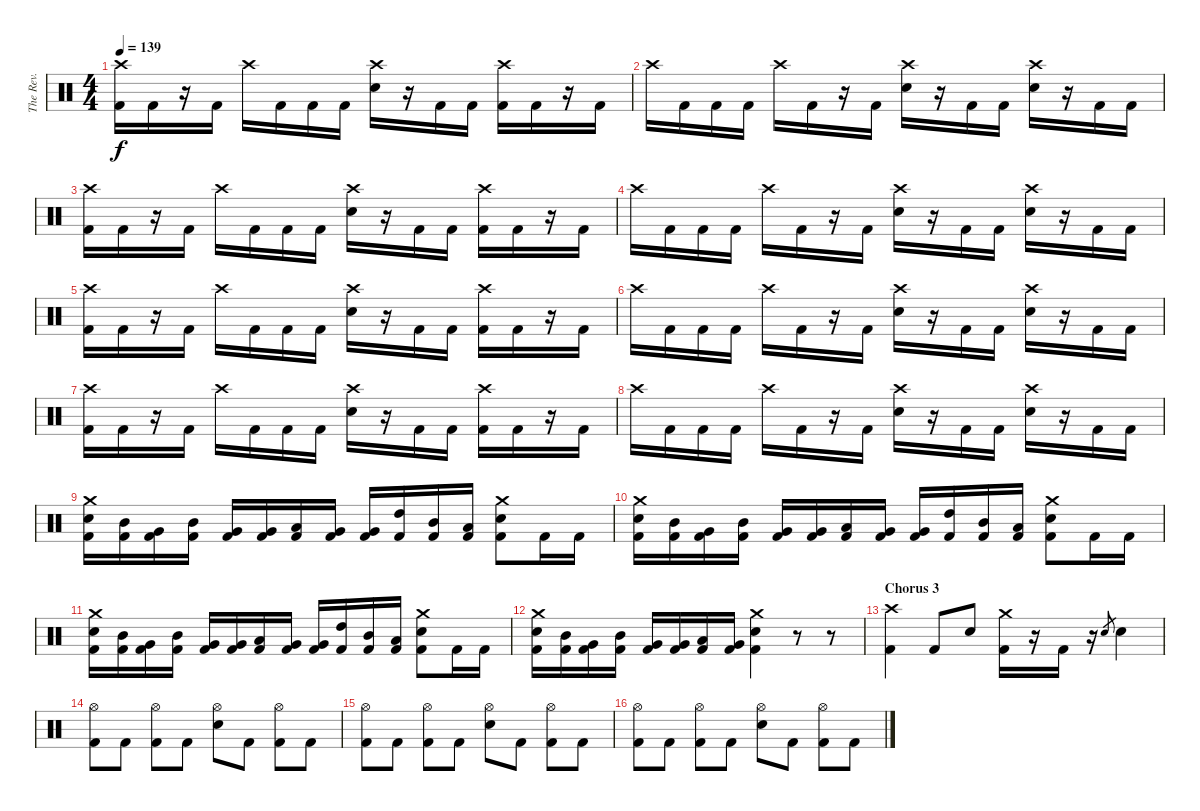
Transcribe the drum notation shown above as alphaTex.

\track ("The Rev." "The Rev.") {instrument percussion}
\staff {score}
\articulation defaults
\ts (4 4)
\section ("" " ")
\tempo 139
\clef neutral
\ks c
("Crash high (hit)" "Kick (hit) 2").16{dy f} "Kick (hit) 2".16 r.16 "Kick (hit) 2".16 "Crash high (hit)".16 "Kick (hit) 2".16 "Kick (hit) 2".16 "Kick (hit) 2".16 ("Crash high (hit)" "Electric Snare (hit)").16 r.16 "Kick (hit) 2".16 "Kick (hit) 2".16 ("Crash high (hit)" "Kick (hit) 2").16 "Kick (hit) 2".16 r.16 "Kick (hit) 2".16 |
"Crash high (hit)".16 "Kick (hit) 2".16 "Kick (hit) 2".16 "Kick (hit) 2".16 "Crash high (hit)".16 "Kick (hit) 2".16 r.16 "Kick (hit) 2".16 ("Crash high (hit)" "Electric Snare (hit)").16 r.16 "Kick (hit) 2".16 "Kick (hit) 2".16 ("Crash high (hit)" "Electric Snare (hit)").16 r.16 "Kick (hit) 2".16 "Kick (hit) 2".16 |
("Crash high (hit)" "Kick (hit) 2").16 "Kick (hit) 2".16 r.16 "Kick (hit) 2".16 "Crash high (hit)".16 "Kick (hit) 2".16 "Kick (hit) 2".16 "Kick (hit) 2".16 ("Crash high (hit)" "Electric Snare (hit)").16 r.16 "Kick (hit) 2".16 "Kick (hit) 2".16 ("Crash high (hit)" "Kick (hit) 2").16 "Kick (hit) 2".16 r.16 "Kick (hit) 2".16 |
"Crash high (hit)".16 "Kick (hit) 2".16 "Kick (hit) 2".16 "Kick (hit) 2".16 "Crash high (hit)".16 "Kick (hit) 2".16 r.16 "Kick (hit) 2".16 ("Crash high (hit)" "Electric Snare (hit)").16 r.16 "Kick (hit) 2".16 "Kick (hit) 2".16 ("Crash high (hit)" "Electric Snare (hit)").16 r.16 "Kick (hit) 2".16 "Kick (hit) 2".16 |
("Crash high (hit)" "Kick (hit) 2").16 "Kick (hit) 2".16 r.16 "Kick (hit) 2".16 "Crash high (hit)".16 "Kick (hit) 2".16 "Kick (hit) 2".16 "Kick (hit) 2".16 ("Crash high (hit)" "Electric Snare (hit)").16 r.16 "Kick (hit) 2".16 "Kick (hit) 2".16 ("Crash high (hit)" "Kick (hit) 2").16 "Kick (hit) 2".16 r.16 "Kick (hit) 2".16 |
"Crash high (hit)".16 "Kick (hit) 2".16 "Kick (hit) 2".16 "Kick (hit) 2".16 "Crash high (hit)".16 "Kick (hit) 2".16 r.16 "Kick (hit) 2".16 ("Crash high (hit)" "Electric Snare (hit)").16 r.16 "Kick (hit) 2".16 "Kick (hit) 2".16 ("Crash high (hit)" "Electric Snare (hit)").16 r.16 "Kick (hit) 2".16 "Kick (hit) 2".16 |
("Crash high (hit)" "Kick (hit) 2").16 "Kick (hit) 2".16 r.16 "Kick (hit) 2".16 "Crash high (hit)".16 "Kick (hit) 2".16 "Kick (hit) 2".16 "Kick (hit) 2".16 ("Crash high (hit)" "Electric Snare (hit)").16 r.16 "Kick (hit) 2".16 "Kick (hit) 2".16 ("Crash high (hit)" "Kick (hit) 2").16 "Kick (hit) 2".16 r.16 "Kick (hit) 2".16 |
"Crash high (hit)".16 "Kick (hit) 2".16 "Kick (hit) 2".16 "Kick (hit) 2".16 "Crash high (hit)".16 "Kick (hit) 2".16 r.16 "Kick (hit) 2".16 ("Crash high (hit)" "Electric Snare (hit)").16 r.16 "Kick (hit) 2".16 "Kick (hit) 2".16 ("Crash high (hit)" "Electric Snare (hit)").16 r.16 "Kick (hit) 2".16 "Kick (hit) 2".16 |
("Crash medium (hit)" "Electric Snare (hit)" "Kick (hit) 2").16 ("Mid Tom (hit)" "Kick (hit) 2").16 ("Very Low Tom (hit)" "Kick (hit) 2").16 ("Mid Tom (hit)" "Kick (hit) 2").16 ("Very Low Tom (hit)" "Kick (hit) 2").16 ("Very Low Tom (hit)" "Kick (hit) 2").16 ("Low Tom (hit)" "Kick (hit) 2").16 ("Very Low Tom (hit)" "Kick (hit) 2").16 ("Very Low Tom (hit)" "Kick (hit) 2").16 ("High Tom (hit)" "Kick (hit) 2").16 ("Mid Tom (hit)" "Kick (hit) 2").16 ("Low Tom (hit)" "Kick (hit) 2").16 ("Crash medium (hit)" "Electric Snare (hit)" "Kick (hit) 2").8 "Kick (hit) 2".16 "Kick (hit) 2".16 |
("Crash medium (hit)" "Electric Snare (hit)" "Kick (hit) 2").16 ("Mid Tom (hit)" "Kick (hit) 2").16 ("Very Low Tom (hit)" "Kick (hit) 2").16 ("Mid Tom (hit)" "Kick (hit) 2").16 ("Very Low Tom (hit)" "Kick (hit) 2").16 ("Very Low Tom (hit)" "Kick (hit) 2").16 ("Low Tom (hit)" "Kick (hit) 2").16 ("Very Low Tom (hit)" "Kick (hit) 2").16 ("Very Low Tom (hit)" "Kick (hit) 2").16 ("High Tom (hit)" "Kick (hit) 2").16 ("Mid Tom (hit)" "Kick (hit) 2").16 ("Low Tom (hit)" "Kick (hit) 2").16 ("Crash medium (hit)" "Electric Snare (hit)" "Kick (hit) 2").8 "Kick (hit) 2".16 "Kick (hit) 2".16 |
("Crash medium (hit)" "Electric Snare (hit)" "Kick (hit) 2").16 ("Mid Tom (hit)" "Kick (hit) 2").16 ("Very Low Tom (hit)" "Kick (hit) 2").16 ("Mid Tom (hit)" "Kick (hit) 2").16 ("Very Low Tom (hit)" "Kick (hit) 2").16 ("Very Low Tom (hit)" "Kick (hit) 2").16 ("Low Tom (hit)" "Kick (hit) 2").16 ("Very Low Tom (hit)" "Kick (hit) 2").16 ("Very Low Tom (hit)" "Kick (hit) 2").16 ("High Tom (hit)" "Kick (hit) 2").16 ("Mid Tom (hit)" "Kick (hit) 2").16 ("Low Tom (hit)" "Kick (hit) 2").16 ("Crash medium (hit)" "Electric Snare (hit)" "Kick (hit) 2").8 "Kick (hit) 2".16 "Kick (hit) 2".16 |
("Crash medium (hit)" "Electric Snare (hit)" "Kick (hit) 2").16 ("Mid Tom (hit)" "Kick (hit) 2").16 ("Very Low Tom (hit)" "Kick (hit) 2").16 ("Mid Tom (hit)" "Kick (hit) 2").16 ("Very Low Tom (hit)" "Kick (hit) 2").16 ("Very Low Tom (hit)" "Kick (hit) 2").16 ("Low Tom (hit)" "Kick (hit) 2").16 ("Very Low Tom (hit)" "Kick (hit) 2").16 ("Crash medium (hit)" "Electric Snare (hit)" "Kick (hit) 2").4 r.8 r.8 |
\section ("" "Chorus 3")
("Crash high (hit)" "Kick (hit) 2").4 "Kick (hit) 2".8 "Electric Snare (hit)".8 ("Crash medium (hit)" "Kick (hit) 2").16 r.16 "Kick (hit) 2".16 r.16 "Electric Snare (hit)".8{gr} "Electric Snare (hit)".4 |
("Hi-Hat (open)" "Kick (hit) 2").8 "Kick (hit) 2".8 ("Hi-Hat (open)" "Kick (hit) 2").8 "Kick (hit) 2".8 ("Hi-Hat (open)" "Electric Snare (hit)").8 "Kick (hit) 2".8 ("Hi-Hat (open)" "Kick (hit) 2").8 "Kick (hit) 2".8 |
("Hi-Hat (open)" "Kick (hit) 2").8 "Kick (hit) 2".8 ("Hi-Hat (open)" "Kick (hit) 2").8 "Kick (hit) 2".8 ("Hi-Hat (open)" "Electric Snare (hit)").8 "Kick (hit) 2".8 ("Hi-Hat (open)" "Kick (hit) 2").8 "Kick (hit) 2".8 |
("Hi-Hat (open)" "Kick (hit) 2").8 "Kick (hit) 2".8 ("Hi-Hat (open)" "Kick (hit) 2").8 "Kick (hit) 2".8 ("Hi-Hat (open)" "Electric Snare (hit)").8 "Kick (hit) 2".8 ("Hi-Hat (open)" "Kick (hit) 2").8 "Kick (hit) 2".8
